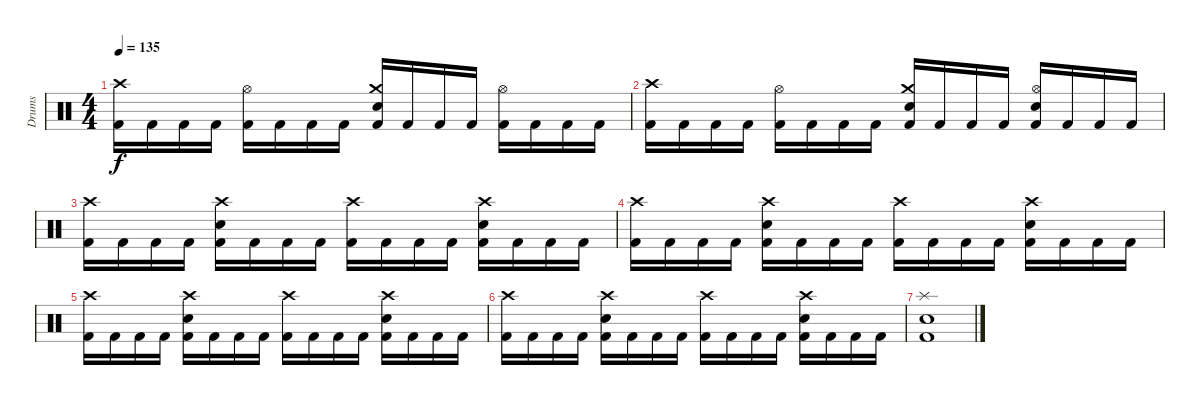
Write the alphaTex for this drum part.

\track ("Drums" "Drums") {instrument percussion}
\staff {score}
\articulation defaults
\ts (4 4)
\tempo 135
\clef neutral
\ks c
("Crash high (hit)" "Kick (hit) 2").16{dy f} "Kick (hit) 2".16 "Kick (hit) 2".16 "Kick (hit) 2".16 ("Hi-Hat (open)" "Kick (hit) 2").16 "Kick (hit) 2".16 "Kick (hit) 2".16 "Kick (hit) 2".16 ("Crash medium (hit)" "Snare (hit) 2" "Kick (hit) 2").16 "Kick (hit) 2".16 "Kick (hit) 2".16 "Kick (hit) 2".16 ("Hi-Hat (open)" "Kick (hit) 2").16 "Kick (hit) 2".16 "Kick (hit) 2".16 "Kick (hit) 2".16 |
("Crash high (hit)" "Kick (hit) 2").16 "Kick (hit) 2".16 "Kick (hit) 2".16 "Kick (hit) 2".16 ("Hi-Hat (open)" "Kick (hit) 2").16 "Kick (hit) 2".16 "Kick (hit) 2".16 "Kick (hit) 2".16 ("Crash medium (hit)" "Snare (hit) 2" "Kick (hit) 2").16 "Kick (hit) 2".16 "Kick (hit) 2".16 "Kick (hit) 2".16 ("Hi-Hat (open)" "Snare (hit) 2" "Kick (hit) 2").16 "Kick (hit) 2".16 "Kick (hit) 2".16 "Kick (hit) 2".16 |
("Crash high (hit)" "Kick (hit) 2").16 "Kick (hit) 2".16 "Kick (hit) 2".16 "Kick (hit) 2".16 ("Crash high (hit)" "Snare (hit) 2" "Kick (hit) 2").16 "Kick (hit) 2".16 "Kick (hit) 2".16 "Kick (hit) 2".16 ("Crash high (hit)" "Kick (hit) 2").16 "Kick (hit) 2".16 "Kick (hit) 2".16 "Kick (hit) 2".16 ("Crash high (hit)" "Snare (hit) 2" "Kick (hit) 2").16 "Kick (hit) 2".16 "Kick (hit) 2".16 "Kick (hit) 2".16 |
("Crash high (hit)" "Kick (hit) 2").16 "Kick (hit) 2".16 "Kick (hit) 2".16 "Kick (hit) 2".16 ("Crash high (hit)" "Snare (hit) 2" "Kick (hit) 2").16 "Kick (hit) 2".16 "Kick (hit) 2".16 "Kick (hit) 2".16 ("Crash high (hit)" "Kick (hit) 2").16 "Kick (hit) 2".16 "Kick (hit) 2".16 "Kick (hit) 2".16 ("Crash high (hit)" "Snare (hit) 2" "Kick (hit) 2").16 "Kick (hit) 2".16 "Kick (hit) 2".16 "Kick (hit) 2".16 |
("Crash high (hit)" "Kick (hit) 2").16 "Kick (hit) 2".16 "Kick (hit) 2".16 "Kick (hit) 2".16 ("Crash high (hit)" "Snare (hit) 2" "Kick (hit) 2").16 "Kick (hit) 2".16 "Kick (hit) 2".16 "Kick (hit) 2".16 ("Crash high (hit)" "Kick (hit) 2").16 "Kick (hit) 2".16 "Kick (hit) 2".16 "Kick (hit) 2".16 ("Crash high (hit)" "Snare (hit) 2" "Kick (hit) 2").16 "Kick (hit) 2".16 "Kick (hit) 2".16 "Kick (hit) 2".16 |
("Crash high (hit)" "Kick (hit) 2").16 "Kick (hit) 2".16 "Kick (hit) 2".16 "Kick (hit) 2".16 ("Crash high (hit)" "Snare (hit) 2" "Kick (hit) 2").16 "Kick (hit) 2".16 "Kick (hit) 2".16 "Kick (hit) 2".16 ("Crash high (hit)" "Kick (hit) 2").16 "Kick (hit) 2".16 "Kick (hit) 2".16 "Kick (hit) 2".16 ("Crash high (hit)" "Snare (hit) 2" "Kick (hit) 2").16 "Kick (hit) 2".16 "Kick (hit) 2".16 "Kick (hit) 2".16 |
("Splash (hit)" "Snare (hit) 2" "Kick (hit) 2").1
